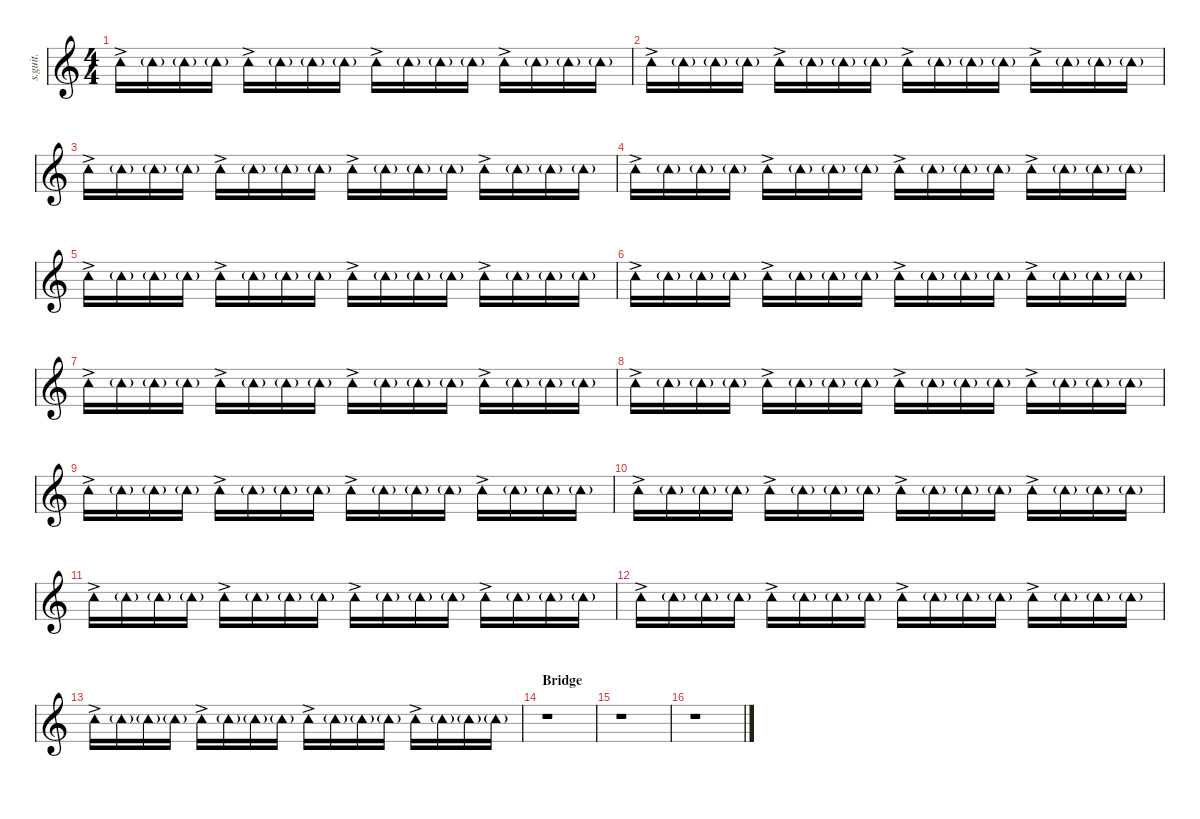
\defaultSystemsLayout 4
\hideDynamics
\bracketExtendMode nobrackets
\track ("Steve Lamos" "s.guit.") {instrument percussion}
\staff {score}
\articulation defaults
\ts (4 4)
\tempo (144 hide)
\clef g2
\ks c "Tambourine (hit)"{ac}.16{lyrics (0 "") lyrics (1 "") lyrics (2 "") lyrics (3 "") lyrics (4 "") dy mf} "Tambourine (hit)"{g}.16{lyrics (0 "") lyrics (1 "") lyrics (2 "") lyrics (3 "") lyrics (4 "") dy f} "Tambourine (hit)"{g}.16{lyrics (0 "") lyrics (1 "") lyrics (2 "") lyrics (3 "") lyrics (4 "")} "Tambourine (hit)"{g}.16{lyrics (0 "") lyrics (1 "") lyrics (2 "") lyrics (3 "") lyrics (4 "")} "Tambourine (hit)"{ac}.16{lyrics (0 "") lyrics (1 "") lyrics (2 "") lyrics (3 "") lyrics (4 "") dy mf} "Tambourine (hit)"{g}.16{lyrics (0 "") lyrics (1 "") lyrics (2 "") lyrics (3 "") lyrics (4 "") dy f} "Tambourine (hit)"{g}.16{lyrics (0 "") lyrics (1 "") lyrics (2 "") lyrics (3 "") lyrics (4 "")} "Tambourine (hit)"{g}.16{lyrics (0 "") lyrics (1 "") lyrics (2 "") lyrics (3 "") lyrics (4 "")} "Tambourine (hit)"{ac}.16{lyrics (0 "") lyrics (1 "") lyrics (2 "") lyrics (3 "") lyrics (4 "") dy mf} "Tambourine (hit)"{g}.16{lyrics (0 "") lyrics (1 "") lyrics (2 "") lyrics (3 "") lyrics (4 "") dy f} "Tambourine (hit)"{g}.16{lyrics (0 "") lyrics (1 "") lyrics (2 "") lyrics (3 "") lyrics (4 "")} "Tambourine (hit)"{g}.16{lyrics (0 "") lyrics (1 "") lyrics (2 "") lyrics (3 "") lyrics (4 "")} "Tambourine (hit)"{ac}.16{lyrics (0 "") lyrics (1 "") lyrics (2 "") lyrics (3 "") lyrics (4 "") dy mf} "Tambourine (hit)"{g}.16{lyrics (0 "") lyrics (1 "") lyrics (2 "") lyrics (3 "") lyrics (4 "") dy f} "Tambourine (hit)"{g}.16{lyrics (0 "") lyrics (1 "") lyrics (2 "") lyrics (3 "") lyrics (4 "")} "Tambourine (hit)"{g}.16{lyrics (0 "") lyrics (1 "") lyrics (2 "") lyrics (3 "") lyrics (4 "")}
|
"Tambourine (hit)"{ac}.16{lyrics (0 "") lyrics (1 "") lyrics (2 "") lyrics (3 "") lyrics (4 "") dy mf} "Tambourine (hit)"{g}.16{lyrics (0 "") lyrics (1 "") lyrics (2 "") lyrics (3 "") lyrics (4 "") dy f} "Tambourine (hit)"{g}.16{lyrics (0 "") lyrics (1 "") lyrics (2 "") lyrics (3 "") lyrics (4 "")} "Tambourine (hit)"{g}.16{lyrics (0 "") lyrics (1 "") lyrics (2 "") lyrics (3 "") lyrics (4 "")} "Tambourine (hit)"{ac}.16{lyrics (0 "") lyrics (1 "") lyrics (2 "") lyrics (3 "") lyrics (4 "") dy mf} "Tambourine (hit)"{g}.16{lyrics (0 "") lyrics (1 "") lyrics (2 "") lyrics (3 "") lyrics (4 "") dy f} "Tambourine (hit)"{g}.16{lyrics (0 "") lyrics (1 "") lyrics (2 "") lyrics (3 "") lyrics (4 "")} "Tambourine (hit)"{g}.16{lyrics (0 "") lyrics (1 "") lyrics (2 "") lyrics (3 "") lyrics (4 "")} "Tambourine (hit)"{ac}.16{lyrics (0 "") lyrics (1 "") lyrics (2 "") lyrics (3 "") lyrics (4 "") dy mf} "Tambourine (hit)"{g}.16{lyrics (0 "") lyrics (1 "") lyrics (2 "") lyrics (3 "") lyrics (4 "") dy f} "Tambourine (hit)"{g}.16{lyrics (0 "") lyrics (1 "") lyrics (2 "") lyrics (3 "") lyrics (4 "")} "Tambourine (hit)"{g}.16{lyrics (0 "") lyrics (1 "") lyrics (2 "") lyrics (3 "") lyrics (4 "")} "Tambourine (hit)"{ac}.16{lyrics (0 "") lyrics (1 "") lyrics (2 "") lyrics (3 "") lyrics (4 "") dy mf} "Tambourine (hit)"{g}.16{lyrics (0 "") lyrics (1 "") lyrics (2 "") lyrics (3 "") lyrics (4 "") dy f} "Tambourine (hit)"{g}.16{lyrics (0 "") lyrics (1 "") lyrics (2 "") lyrics (3 "") lyrics (4 "")} "Tambourine (hit)"{g}.16{lyrics (0 "") lyrics (1 "") lyrics (2 "") lyrics (3 "") lyrics (4 "")} |
"Tambourine (hit)"{ac}.16{lyrics (0 "") lyrics (1 "") lyrics (2 "") lyrics (3 "") lyrics (4 "") dy mf} "Tambourine (hit)"{g}.16{lyrics (0 "") lyrics (1 "") lyrics (2 "") lyrics (3 "") lyrics (4 "") dy f} "Tambourine (hit)"{g}.16{lyrics (0 "") lyrics (1 "") lyrics (2 "") lyrics (3 "") lyrics (4 "")} "Tambourine (hit)"{g}.16{lyrics (0 "") lyrics (1 "") lyrics (2 "") lyrics (3 "") lyrics (4 "")} "Tambourine (hit)"{ac}.16{lyrics (0 "") lyrics (1 "") lyrics (2 "") lyrics (3 "") lyrics (4 "") dy mf} "Tambourine (hit)"{g}.16{lyrics (0 "") lyrics (1 "") lyrics (2 "") lyrics (3 "") lyrics (4 "") dy f} "Tambourine (hit)"{g}.16{lyrics (0 "") lyrics (1 "") lyrics (2 "") lyrics (3 "") lyrics (4 "")} "Tambourine (hit)"{g}.16{lyrics (0 "") lyrics (1 "") lyrics (2 "") lyrics (3 "") lyrics (4 "")} "Tambourine (hit)"{ac}.16{lyrics (0 "") lyrics (1 "") lyrics (2 "") lyrics (3 "") lyrics (4 "") dy mf} "Tambourine (hit)"{g}.16{lyrics (0 "") lyrics (1 "") lyrics (2 "") lyrics (3 "") lyrics (4 "") dy f} "Tambourine (hit)"{g}.16{lyrics (0 "") lyrics (1 "") lyrics (2 "") lyrics (3 "") lyrics (4 "")} "Tambourine (hit)"{g}.16{lyrics (0 "") lyrics (1 "") lyrics (2 "") lyrics (3 "") lyrics (4 "")} "Tambourine (hit)"{ac}.16{lyrics (0 "") lyrics (1 "") lyrics (2 "") lyrics (3 "") lyrics (4 "") dy mf} "Tambourine (hit)"{g}.16{lyrics (0 "") lyrics (1 "") lyrics (2 "") lyrics (3 "") lyrics (4 "") dy f} "Tambourine (hit)"{g}.16{lyrics (0 "") lyrics (1 "") lyrics (2 "") lyrics (3 "") lyrics (4 "")} "Tambourine (hit)"{g}.16{lyrics (0 "") lyrics (1 "") lyrics (2 "") lyrics (3 "") lyrics (4 "")} |
"Tambourine (hit)"{ac}.16{lyrics (0 "") lyrics (1 "") lyrics (2 "") lyrics (3 "") lyrics (4 "") dy mf} "Tambourine (hit)"{g}.16{lyrics (0 "") lyrics (1 "") lyrics (2 "") lyrics (3 "") lyrics (4 "") dy f} "Tambourine (hit)"{g}.16{lyrics (0 "") lyrics (1 "") lyrics (2 "") lyrics (3 "") lyrics (4 "")} "Tambourine (hit)"{g}.16{lyrics (0 "") lyrics (1 "") lyrics (2 "") lyrics (3 "") lyrics (4 "")} "Tambourine (hit)"{ac}.16{lyrics (0 "") lyrics (1 "") lyrics (2 "") lyrics (3 "") lyrics (4 "") dy mf} "Tambourine (hit)"{g}.16{lyrics (0 "") lyrics (1 "") lyrics (2 "") lyrics (3 "") lyrics (4 "") dy f} "Tambourine (hit)"{g}.16{lyrics (0 "") lyrics (1 "") lyrics (2 "") lyrics (3 "") lyrics (4 "")} "Tambourine (hit)"{g}.16{lyrics (0 "") lyrics (1 "") lyrics (2 "") lyrics (3 "") lyrics (4 "")} "Tambourine (hit)"{ac}.16{lyrics (0 "") lyrics (1 "") lyrics (2 "") lyrics (3 "") lyrics (4 "") dy mf} "Tambourine (hit)"{g}.16{lyrics (0 "") lyrics (1 "") lyrics (2 "") lyrics (3 "") lyrics (4 "") dy f} "Tambourine (hit)"{g}.16{lyrics (0 "") lyrics (1 "") lyrics (2 "") lyrics (3 "") lyrics (4 "")} "Tambourine (hit)"{g}.16{lyrics (0 "") lyrics (1 "") lyrics (2 "") lyrics (3 "") lyrics (4 "")} "Tambourine (hit)"{ac}.16{lyrics (0 "") lyrics (1 "") lyrics (2 "") lyrics (3 "") lyrics (4 "") dy mf} "Tambourine (hit)"{g}.16{lyrics (0 "") lyrics (1 "") lyrics (2 "") lyrics (3 "") lyrics (4 "") dy f} "Tambourine (hit)"{g}.16{lyrics (0 "") lyrics (1 "") lyrics (2 "") lyrics (3 "") lyrics (4 "")} "Tambourine (hit)"{g}.16{lyrics (0 "") lyrics (1 "") lyrics (2 "") lyrics (3 "") lyrics (4 "")} |
"Tambourine (hit)"{ac}.16{lyrics (0 "") lyrics (1 "") lyrics (2 "") lyrics (3 "") lyrics (4 "") dy mf} "Tambourine (hit)"{g}.16{lyrics (0 "") lyrics (1 "") lyrics (2 "") lyrics (3 "") lyrics (4 "") dy f} "Tambourine (hit)"{g}.16{lyrics (0 "") lyrics (1 "") lyrics (2 "") lyrics (3 "") lyrics (4 "")} "Tambourine (hit)"{g}.16{lyrics (0 "") lyrics (1 "") lyrics (2 "") lyrics (3 "") lyrics (4 "")} "Tambourine (hit)"{ac}.16{lyrics (0 "") lyrics (1 "") lyrics (2 "") lyrics (3 "") lyrics (4 "") dy mf} "Tambourine (hit)"{g}.16{lyrics (0 "") lyrics (1 "") lyrics (2 "") lyrics (3 "") lyrics (4 "") dy f} "Tambourine (hit)"{g}.16{lyrics (0 "") lyrics (1 "") lyrics (2 "") lyrics (3 "") lyrics (4 "")} "Tambourine (hit)"{g}.16{lyrics (0 "") lyrics (1 "") lyrics (2 "") lyrics (3 "") lyrics (4 "")} "Tambourine (hit)"{ac}.16{lyrics (0 "") lyrics (1 "") lyrics (2 "") lyrics (3 "") lyrics (4 "") dy mf} "Tambourine (hit)"{g}.16{lyrics (0 "") lyrics (1 "") lyrics (2 "") lyrics (3 "") lyrics (4 "") dy f} "Tambourine (hit)"{g}.16{lyrics (0 "") lyrics (1 "") lyrics (2 "") lyrics (3 "") lyrics (4 "")} "Tambourine (hit)"{g}.16{lyrics (0 "") lyrics (1 "") lyrics (2 "") lyrics (3 "") lyrics (4 "")} "Tambourine (hit)"{ac}.16{lyrics (0 "") lyrics (1 "") lyrics (2 "") lyrics (3 "") lyrics (4 "") dy mf} "Tambourine (hit)"{g}.16{lyrics (0 "") lyrics (1 "") lyrics (2 "") lyrics (3 "") lyrics (4 "") dy f} "Tambourine (hit)"{g}.16{lyrics (0 "") lyrics (1 "") lyrics (2 "") lyrics (3 "") lyrics (4 "")} "Tambourine (hit)"{g}.16{lyrics (0 "") lyrics (1 "") lyrics (2 "") lyrics (3 "") lyrics (4 "")} |
"Tambourine (hit)"{ac}.16{lyrics (0 "") lyrics (1 "") lyrics (2 "") lyrics (3 "") lyrics (4 "") dy mf} "Tambourine (hit)"{g}.16{lyrics (0 "") lyrics (1 "") lyrics (2 "") lyrics (3 "") lyrics (4 "") dy f} "Tambourine (hit)"{g}.16{lyrics (0 "") lyrics (1 "") lyrics (2 "") lyrics (3 "") lyrics (4 "")} "Tambourine (hit)"{g}.16{lyrics (0 "") lyrics (1 "") lyrics (2 "") lyrics (3 "") lyrics (4 "")} "Tambourine (hit)"{ac}.16{lyrics (0 "") lyrics (1 "") lyrics (2 "") lyrics (3 "") lyrics (4 "") dy mf} "Tambourine (hit)"{g}.16{lyrics (0 "") lyrics (1 "") lyrics (2 "") lyrics (3 "") lyrics (4 "") dy f} "Tambourine (hit)"{g}.16{lyrics (0 "") lyrics (1 "") lyrics (2 "") lyrics (3 "") lyrics (4 "")} "Tambourine (hit)"{g}.16{lyrics (0 "") lyrics (1 "") lyrics (2 "") lyrics (3 "") lyrics (4 "")} "Tambourine (hit)"{ac}.16{lyrics (0 "") lyrics (1 "") lyrics (2 "") lyrics (3 "") lyrics (4 "") dy mf} "Tambourine (hit)"{g}.16{lyrics (0 "") lyrics (1 "") lyrics (2 "") lyrics (3 "") lyrics (4 "") dy f} "Tambourine (hit)"{g}.16{lyrics (0 "") lyrics (1 "") lyrics (2 "") lyrics (3 "") lyrics (4 "")} "Tambourine (hit)"{g}.16{lyrics (0 "") lyrics (1 "") lyrics (2 "") lyrics (3 "") lyrics (4 "")} "Tambourine (hit)"{ac}.16{lyrics (0 "") lyrics (1 "") lyrics (2 "") lyrics (3 "") lyrics (4 "") dy mf} "Tambourine (hit)"{g}.16{lyrics (0 "") lyrics (1 "") lyrics (2 "") lyrics (3 "") lyrics (4 "") dy f} "Tambourine (hit)"{g}.16{lyrics (0 "") lyrics (1 "") lyrics (2 "") lyrics (3 "") lyrics (4 "")} "Tambourine (hit)"{g}.16{lyrics (0 "") lyrics (1 "") lyrics (2 "") lyrics (3 "") lyrics (4 "")} |
"Tambourine (hit)"{ac}.16{lyrics (0 "") lyrics (1 "") lyrics (2 "") lyrics (3 "") lyrics (4 "") dy mf} "Tambourine (hit)"{g}.16{lyrics (0 "") lyrics (1 "") lyrics (2 "") lyrics (3 "") lyrics (4 "") dy f} "Tambourine (hit)"{g}.16{lyrics (0 "") lyrics (1 "") lyrics (2 "") lyrics (3 "") lyrics (4 "")} "Tambourine (hit)"{g}.16{lyrics (0 "") lyrics (1 "") lyrics (2 "") lyrics (3 "") lyrics (4 "")} "Tambourine (hit)"{ac}.16{lyrics (0 "") lyrics (1 "") lyrics (2 "") lyrics (3 "") lyrics (4 "") dy mf} "Tambourine (hit)"{g}.16{lyrics (0 "") lyrics (1 "") lyrics (2 "") lyrics (3 "") lyrics (4 "") dy f} "Tambourine (hit)"{g}.16{lyrics (0 "") lyrics (1 "") lyrics (2 "") lyrics (3 "") lyrics (4 "")} "Tambourine (hit)"{g}.16{lyrics (0 "") lyrics (1 "") lyrics (2 "") lyrics (3 "") lyrics (4 "")} "Tambourine (hit)"{ac}.16{lyrics (0 "") lyrics (1 "") lyrics (2 "") lyrics (3 "") lyrics (4 "") dy mf} "Tambourine (hit)"{g}.16{lyrics (0 "") lyrics (1 "") lyrics (2 "") lyrics (3 "") lyrics (4 "") dy f} "Tambourine (hit)"{g}.16{lyrics (0 "") lyrics (1 "") lyrics (2 "") lyrics (3 "") lyrics (4 "")} "Tambourine (hit)"{g}.16{lyrics (0 "") lyrics (1 "") lyrics (2 "") lyrics (3 "") lyrics (4 "")} "Tambourine (hit)"{ac}.16{lyrics (0 "") lyrics (1 "") lyrics (2 "") lyrics (3 "") lyrics (4 "") dy mf} "Tambourine (hit)"{g}.16{lyrics (0 "") lyrics (1 "") lyrics (2 "") lyrics (3 "") lyrics (4 "") dy f} "Tambourine (hit)"{g}.16{lyrics (0 "") lyrics (1 "") lyrics (2 "") lyrics (3 "") lyrics (4 "")} "Tambourine (hit)"{g}.16{lyrics (0 "") lyrics (1 "") lyrics (2 "") lyrics (3 "") lyrics (4 "")} |
"Tambourine (hit)"{ac}.16{lyrics (0 "") lyrics (1 "") lyrics (2 "") lyrics (3 "") lyrics (4 "") dy mf} "Tambourine (hit)"{g}.16{lyrics (0 "") lyrics (1 "") lyrics (2 "") lyrics (3 "") lyrics (4 "") dy f} "Tambourine (hit)"{g}.16{lyrics (0 "") lyrics (1 "") lyrics (2 "") lyrics (3 "") lyrics (4 "")} "Tambourine (hit)"{g}.16{lyrics (0 "") lyrics (1 "") lyrics (2 "") lyrics (3 "") lyrics (4 "")} "Tambourine (hit)"{ac}.16{lyrics (0 "") lyrics (1 "") lyrics (2 "") lyrics (3 "") lyrics (4 "") dy mf} "Tambourine (hit)"{g}.16{lyrics (0 "") lyrics (1 "") lyrics (2 "") lyrics (3 "") lyrics (4 "") dy f} "Tambourine (hit)"{g}.16{lyrics (0 "") lyrics (1 "") lyrics (2 "") lyrics (3 "") lyrics (4 "")} "Tambourine (hit)"{g}.16{lyrics (0 "") lyrics (1 "") lyrics (2 "") lyrics (3 "") lyrics (4 "")} "Tambourine (hit)"{ac}.16{lyrics (0 "") lyrics (1 "") lyrics (2 "") lyrics (3 "") lyrics (4 "") dy mf} "Tambourine (hit)"{g}.16{lyrics (0 "") lyrics (1 "") lyrics (2 "") lyrics (3 "") lyrics (4 "") dy f} "Tambourine (hit)"{g}.16{lyrics (0 "") lyrics (1 "") lyrics (2 "") lyrics (3 "") lyrics (4 "")} "Tambourine (hit)"{g}.16{lyrics (0 "") lyrics (1 "") lyrics (2 "") lyrics (3 "") lyrics (4 "")} "Tambourine (hit)"{ac}.16{lyrics (0 "") lyrics (1 "") lyrics (2 "") lyrics (3 "") lyrics (4 "") dy mf} "Tambourine (hit)"{g}.16{lyrics (0 "") lyrics (1 "") lyrics (2 "") lyrics (3 "") lyrics (4 "") dy f} "Tambourine (hit)"{g}.16{lyrics (0 "") lyrics (1 "") lyrics (2 "") lyrics (3 "") lyrics (4 "")} "Tambourine (hit)"{g}.16{lyrics (0 "") lyrics (1 "") lyrics (2 "") lyrics (3 "") lyrics (4 "")} |
"Tambourine (hit)"{ac}.16{lyrics (0 "") lyrics (1 "") lyrics (2 "") lyrics (3 "") lyrics (4 "") dy mf} "Tambourine (hit)"{g}.16{lyrics (0 "") lyrics (1 "") lyrics (2 "") lyrics (3 "") lyrics (4 "") dy f} "Tambourine (hit)"{g}.16{lyrics (0 "") lyrics (1 "") lyrics (2 "") lyrics (3 "") lyrics (4 "")} "Tambourine (hit)"{g}.16{lyrics (0 "") lyrics (1 "") lyrics (2 "") lyrics (3 "") lyrics (4 "")} "Tambourine (hit)"{ac}.16{lyrics (0 "") lyrics (1 "") lyrics (2 "") lyrics (3 "") lyrics (4 "") dy mf} "Tambourine (hit)"{g}.16{lyrics (0 "") lyrics (1 "") lyrics (2 "") lyrics (3 "") lyrics (4 "") dy f} "Tambourine (hit)"{g}.16{lyrics (0 "") lyrics (1 "") lyrics (2 "") lyrics (3 "") lyrics (4 "")} "Tambourine (hit)"{g}.16{lyrics (0 "") lyrics (1 "") lyrics (2 "") lyrics (3 "") lyrics (4 "")} "Tambourine (hit)"{ac}.16{lyrics (0 "") lyrics (1 "") lyrics (2 "") lyrics (3 "") lyrics (4 "") dy mf} "Tambourine (hit)"{g}.16{lyrics (0 "") lyrics (1 "") lyrics (2 "") lyrics (3 "") lyrics (4 "") dy f} "Tambourine (hit)"{g}.16{lyrics (0 "") lyrics (1 "") lyrics (2 "") lyrics (3 "") lyrics (4 "")} "Tambourine (hit)"{g}.16{lyrics (0 "") lyrics (1 "") lyrics (2 "") lyrics (3 "") lyrics (4 "")} "Tambourine (hit)"{ac}.16{lyrics (0 "") lyrics (1 "") lyrics (2 "") lyrics (3 "") lyrics (4 "") dy mf} "Tambourine (hit)"{g}.16{lyrics (0 "") lyrics (1 "") lyrics (2 "") lyrics (3 "") lyrics (4 "") dy f} "Tambourine (hit)"{g}.16{lyrics (0 "") lyrics (1 "") lyrics (2 "") lyrics (3 "") lyrics (4 "")} "Tambourine (hit)"{g}.16{lyrics (0 "") lyrics (1 "") lyrics (2 "") lyrics (3 "") lyrics (4 "")} |
"Tambourine (hit)"{ac}.16{lyrics (0 "") lyrics (1 "") lyrics (2 "") lyrics (3 "") lyrics (4 "") dy mf} "Tambourine (hit)"{g}.16{lyrics (0 "") lyrics (1 "") lyrics (2 "") lyrics (3 "") lyrics (4 "") dy f} "Tambourine (hit)"{g}.16{lyrics (0 "") lyrics (1 "") lyrics (2 "") lyrics (3 "") lyrics (4 "")} "Tambourine (hit)"{g}.16{lyrics (0 "") lyrics (1 "") lyrics (2 "") lyrics (3 "") lyrics (4 "")} "Tambourine (hit)"{ac}.16{lyrics (0 "") lyrics (1 "") lyrics (2 "") lyrics (3 "") lyrics (4 "") dy mf} "Tambourine (hit)"{g}.16{lyrics (0 "") lyrics (1 "") lyrics (2 "") lyrics (3 "") lyrics (4 "") dy f} "Tambourine (hit)"{g}.16{lyrics (0 "") lyrics (1 "") lyrics (2 "") lyrics (3 "") lyrics (4 "")} "Tambourine (hit)"{g}.16{lyrics (0 "") lyrics (1 "") lyrics (2 "") lyrics (3 "") lyrics (4 "")} "Tambourine (hit)"{ac}.16{lyrics (0 "") lyrics (1 "") lyrics (2 "") lyrics (3 "") lyrics (4 "") dy mf} "Tambourine (hit)"{g}.16{lyrics (0 "") lyrics (1 "") lyrics (2 "") lyrics (3 "") lyrics (4 "") dy f} "Tambourine (hit)"{g}.16{lyrics (0 "") lyrics (1 "") lyrics (2 "") lyrics (3 "") lyrics (4 "")} "Tambourine (hit)"{g}.16{lyrics (0 "") lyrics (1 "") lyrics (2 "") lyrics (3 "") lyrics (4 "")} "Tambourine (hit)"{ac}.16{lyrics (0 "") lyrics (1 "") lyrics (2 "") lyrics (3 "") lyrics (4 "") dy mf} "Tambourine (hit)"{g}.16{lyrics (0 "") lyrics (1 "") lyrics (2 "") lyrics (3 "") lyrics (4 "") dy f} "Tambourine (hit)"{g}.16{lyrics (0 "") lyrics (1 "") lyrics (2 "") lyrics (3 "") lyrics (4 "")} "Tambourine (hit)"{g}.16{lyrics (0 "") lyrics (1 "") lyrics (2 "") lyrics (3 "") lyrics (4 "")} |
"Tambourine (hit)"{ac}.16{lyrics (0 "") lyrics (1 "") lyrics (2 "") lyrics (3 "") lyrics (4 "") dy mf} "Tambourine (hit)"{g}.16{lyrics (0 "") lyrics (1 "") lyrics (2 "") lyrics (3 "") lyrics (4 "") dy f} "Tambourine (hit)"{g}.16{lyrics (0 "") lyrics (1 "") lyrics (2 "") lyrics (3 "") lyrics (4 "")} "Tambourine (hit)"{g}.16{lyrics (0 "") lyrics (1 "") lyrics (2 "") lyrics (3 "") lyrics (4 "")} "Tambourine (hit)"{ac}.16{lyrics (0 "") lyrics (1 "") lyrics (2 "") lyrics (3 "") lyrics (4 "") dy mf} "Tambourine (hit)"{g}.16{lyrics (0 "") lyrics (1 "") lyrics (2 "") lyrics (3 "") lyrics (4 "") dy f} "Tambourine (hit)"{g}.16{lyrics (0 "") lyrics (1 "") lyrics (2 "") lyrics (3 "") lyrics (4 "")} "Tambourine (hit)"{g}.16{lyrics (0 "") lyrics (1 "") lyrics (2 "") lyrics (3 "") lyrics (4 "")} "Tambourine (hit)"{ac}.16{lyrics (0 "") lyrics (1 "") lyrics (2 "") lyrics (3 "") lyrics (4 "") dy mf} "Tambourine (hit)"{g}.16{lyrics (0 "") lyrics (1 "") lyrics (2 "") lyrics (3 "") lyrics (4 "") dy f} "Tambourine (hit)"{g}.16{lyrics (0 "") lyrics (1 "") lyrics (2 "") lyrics (3 "") lyrics (4 "")} "Tambourine (hit)"{g}.16{lyrics (0 "") lyrics (1 "") lyrics (2 "") lyrics (3 "") lyrics (4 "")} "Tambourine (hit)"{ac}.16{lyrics (0 "") lyrics (1 "") lyrics (2 "") lyrics (3 "") lyrics (4 "") dy mf} "Tambourine (hit)"{g}.16{lyrics (0 "") lyrics (1 "") lyrics (2 "") lyrics (3 "") lyrics (4 "") dy f} "Tambourine (hit)"{g}.16{lyrics (0 "") lyrics (1 "") lyrics (2 "") lyrics (3 "") lyrics (4 "")} "Tambourine (hit)"{g}.16{lyrics (0 "") lyrics (1 "") lyrics (2 "") lyrics (3 "") lyrics (4 "")} |
"Tambourine (hit)"{ac}.16{lyrics (0 "") lyrics (1 "") lyrics (2 "") lyrics (3 "") lyrics (4 "") dy mf} "Tambourine (hit)"{g}.16{lyrics (0 "") lyrics (1 "") lyrics (2 "") lyrics (3 "") lyrics (4 "") dy f} "Tambourine (hit)"{g}.16{lyrics (0 "") lyrics (1 "") lyrics (2 "") lyrics (3 "") lyrics (4 "")} "Tambourine (hit)"{g}.16{lyrics (0 "") lyrics (1 "") lyrics (2 "") lyrics (3 "") lyrics (4 "")} "Tambourine (hit)"{ac}.16{lyrics (0 "") lyrics (1 "") lyrics (2 "") lyrics (3 "") lyrics (4 "") dy mf} "Tambourine (hit)"{g}.16{lyrics (0 "") lyrics (1 "") lyrics (2 "") lyrics (3 "") lyrics (4 "") dy f} "Tambourine (hit)"{g}.16{lyrics (0 "") lyrics (1 "") lyrics (2 "") lyrics (3 "") lyrics (4 "")} "Tambourine (hit)"{g}.16{lyrics (0 "") lyrics (1 "") lyrics (2 "") lyrics (3 "") lyrics (4 "")} "Tambourine (hit)"{ac}.16{lyrics (0 "") lyrics (1 "") lyrics (2 "") lyrics (3 "") lyrics (4 "") dy mf} "Tambourine (hit)"{g}.16{lyrics (0 "") lyrics (1 "") lyrics (2 "") lyrics (3 "") lyrics (4 "") dy f} "Tambourine (hit)"{g}.16{lyrics (0 "") lyrics (1 "") lyrics (2 "") lyrics (3 "") lyrics (4 "")} "Tambourine (hit)"{g}.16{lyrics (0 "") lyrics (1 "") lyrics (2 "") lyrics (3 "") lyrics (4 "")} "Tambourine (hit)"{ac}.16{lyrics (0 "") lyrics (1 "") lyrics (2 "") lyrics (3 "") lyrics (4 "") dy mf} "Tambourine (hit)"{g}.16{lyrics (0 "") lyrics (1 "") lyrics (2 "") lyrics (3 "") lyrics (4 "") dy f} "Tambourine (hit)"{g}.16{lyrics (0 "") lyrics (1 "") lyrics (2 "") lyrics (3 "") lyrics (4 "")} "Tambourine (hit)"{g}.16{lyrics (0 "") lyrics (1 "") lyrics (2 "") lyrics (3 "") lyrics (4 "")} |
"Tambourine (hit)"{ac}.16{lyrics (0 "") lyrics (1 "") lyrics (2 "") lyrics (3 "") lyrics (4 "") dy mf} "Tambourine (hit)"{g}.16{lyrics (0 "") lyrics (1 "") lyrics (2 "") lyrics (3 "") lyrics (4 "") dy f} "Tambourine (hit)"{g}.16{lyrics (0 "") lyrics (1 "") lyrics (2 "") lyrics (3 "") lyrics (4 "")} "Tambourine (hit)"{g}.16{lyrics (0 "") lyrics (1 "") lyrics (2 "") lyrics (3 "") lyrics (4 "")} "Tambourine (hit)"{ac}.16{lyrics (0 "") lyrics (1 "") lyrics (2 "") lyrics (3 "") lyrics (4 "") dy mf} "Tambourine (hit)"{g}.16{lyrics (0 "") lyrics (1 "") lyrics (2 "") lyrics (3 "") lyrics (4 "") dy f} "Tambourine (hit)"{g}.16{lyrics (0 "") lyrics (1 "") lyrics (2 "") lyrics (3 "") lyrics (4 "")} "Tambourine (hit)"{g}.16{lyrics (0 "") lyrics (1 "") lyrics (2 "") lyrics (3 "") lyrics (4 "")} "Tambourine (hit)"{ac}.16{lyrics (0 "") lyrics (1 "") lyrics (2 "") lyrics (3 "") lyrics (4 "") dy mf} "Tambourine (hit)"{g}.16{lyrics (0 "") lyrics (1 "") lyrics (2 "") lyrics (3 "") lyrics (4 "") dy f} "Tambourine (hit)"{g}.16{lyrics (0 "") lyrics (1 "") lyrics (2 "") lyrics (3 "") lyrics (4 "")} "Tambourine (hit)"{g}.16{lyrics (0 "") lyrics (1 "") lyrics (2 "") lyrics (3 "") lyrics (4 "")} "Tambourine (hit)"{ac}.16{lyrics (0 "") lyrics (1 "") lyrics (2 "") lyrics (3 "") lyrics (4 "") dy mf} "Tambourine (hit)"{g}.16{lyrics (0 "") lyrics (1 "") lyrics (2 "") lyrics (3 "") lyrics (4 "") dy f} "Tambourine (hit)"{g}.16{lyrics (0 "") lyrics (1 "") lyrics (2 "") lyrics (3 "") lyrics (4 "")} "Tambourine (hit)"{g}.16{lyrics (0 "") lyrics (1 "") lyrics (2 "") lyrics (3 "") lyrics (4 "")} |
\section ("" "Bridge")
r.1 |
r.1 |
r.1
